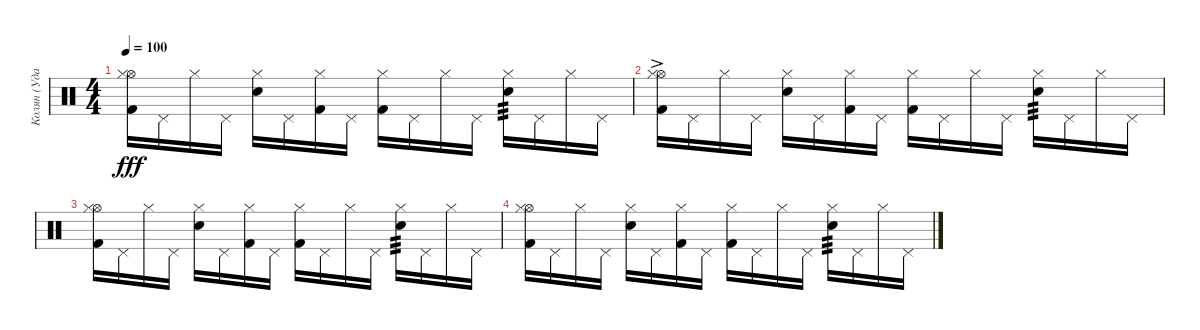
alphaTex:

\track ("Колян (Ударные)" "Колян (Уда") {instrument percussion}
\staff {score}
\articulation defaults
\ts (4 4)
\tempo 100
\clef neutral
\ks c
("Kick (hit) 2" "Hi-Hat (open)" "Hi-Hat (closed)").16{dy fff} "Pedal Hi-Hat (hit)".16 "Hi-Hat (closed)".16 "Pedal Hi-Hat (hit)".16 ("Snare (hit) 2" "Hi-Hat (closed)").16 "Pedal Hi-Hat (hit)".16 ("Kick (hit) 2" "Hi-Hat (closed)").16 "Pedal Hi-Hat (hit)".16 ("Kick (hit) 2" "Hi-Hat (closed)").16 "Pedal Hi-Hat (hit)".16 "Hi-Hat (closed)".16 "Pedal Hi-Hat (hit)".16 ("Snare (hit) 2" "Hi-Hat (closed)").16{tp 3} "Pedal Hi-Hat (hit)".16 "Hi-Hat (closed)".16 "Pedal Hi-Hat (hit)".16 |
("Kick (hit) 2" "Hi-Hat (open)"{ac} "Hi-Hat (closed)").16{volume 13} "Pedal Hi-Hat (hit)".16 "Hi-Hat (closed)".16 "Pedal Hi-Hat (hit)".16 ("Snare (hit) 2" "Hi-Hat (closed)").16 "Pedal Hi-Hat (hit)".16 ("Kick (hit) 2" "Hi-Hat (closed)").16 "Pedal Hi-Hat (hit)".16 ("Kick (hit) 2" "Hi-Hat (closed)").16 "Pedal Hi-Hat (hit)".16 "Hi-Hat (closed)".16 "Pedal Hi-Hat (hit)".16 ("Snare (hit) 2" "Hi-Hat (closed)").16{tp 3} "Pedal Hi-Hat (hit)".16 "Hi-Hat (closed)".16 "Pedal Hi-Hat (hit)".16 |
("Kick (hit) 2" "Hi-Hat (open)" "Hi-Hat (closed)").16 "Pedal Hi-Hat (hit)".16 "Hi-Hat (closed)".16 "Pedal Hi-Hat (hit)".16 ("Snare (hit) 2" "Hi-Hat (closed)").16 "Pedal Hi-Hat (hit)".16 ("Kick (hit) 2" "Hi-Hat (closed)").16 "Pedal Hi-Hat (hit)".16 ("Kick (hit) 2" "Hi-Hat (closed)").16 "Pedal Hi-Hat (hit)".16 "Hi-Hat (closed)".16 "Pedal Hi-Hat (hit)".16 ("Snare (hit) 2" "Hi-Hat (closed)").16{tp 3} "Pedal Hi-Hat (hit)".16 "Hi-Hat (closed)".16 "Pedal Hi-Hat (hit)".16 |
("Kick (hit) 2" "Hi-Hat (open)" "Hi-Hat (closed)").16 "Pedal Hi-Hat (hit)".16 "Hi-Hat (closed)".16 "Pedal Hi-Hat (hit)".16 ("Snare (hit) 2" "Hi-Hat (closed)").16 "Pedal Hi-Hat (hit)".16 ("Kick (hit) 2" "Hi-Hat (closed)").16 "Pedal Hi-Hat (hit)".16 ("Kick (hit) 2" "Hi-Hat (closed)").16 "Pedal Hi-Hat (hit)".16 "Hi-Hat (closed)".16 "Pedal Hi-Hat (hit)".16 ("Snare (hit) 2" "Hi-Hat (closed)").16{tp 3} "Pedal Hi-Hat (hit)".16 "Hi-Hat (closed)".16 "Pedal Hi-Hat (hit)".16
